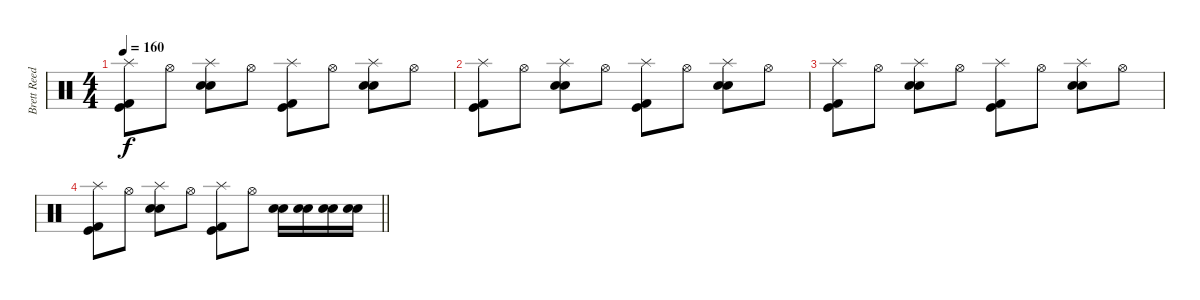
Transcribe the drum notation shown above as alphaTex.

\track ("Brett Reed" "Brett Reed") {instrument percussion}
\staff {score}
\articulation defaults
\ts (4 4)
\tempo 160
\clef neutral
\ks c
("Splash (hit)" "Kick (hit) 2" "Kick (hit)").8{dy f} "Hi-Hat (open)".8 ("Splash (hit)" "Electric Snare (hit)" "Snare (hit) 2").8 "Hi-Hat (open)".8 ("Splash (hit)" "Kick (hit) 2" "Kick (hit)").8 "Hi-Hat (open)".8 ("Splash (hit)" "Electric Snare (hit)" "Snare (hit) 2").8 "Hi-Hat (open)".8 |
("Splash (hit)" "Kick (hit) 2" "Kick (hit)").8 "Hi-Hat (open)".8 ("Splash (hit)" "Electric Snare (hit)" "Snare (hit) 2").8 "Hi-Hat (open)".8 ("Splash (hit)" "Kick (hit) 2" "Kick (hit)").8 "Hi-Hat (open)".8 ("Splash (hit)" "Electric Snare (hit)" "Snare (hit) 2").8 "Hi-Hat (open)".8 |
("Splash (hit)" "Kick (hit) 2" "Kick (hit)").8 "Hi-Hat (open)".8 ("Splash (hit)" "Electric Snare (hit)" "Snare (hit) 2").8 "Hi-Hat (open)".8 ("Splash (hit)" "Kick (hit) 2" "Kick (hit)").8 "Hi-Hat (open)".8 ("Splash (hit)" "Electric Snare (hit)" "Snare (hit) 2").8 "Hi-Hat (open)".8 |
\barLineRight lightlight
("Splash (hit)" "Kick (hit) 2" "Kick (hit)").8 "Hi-Hat (open)".8 ("Splash (hit)" "Electric Snare (hit)" "Snare (hit) 2").8 "Hi-Hat (open)".8 ("Splash (hit)" "Kick (hit) 2" "Kick (hit)").8 "Hi-Hat (open)".8 ("Electric Snare (hit)" "Snare (hit) 2").16 ("Electric Snare (hit)" "Snare (hit) 2").16 ("Electric Snare (hit)" "Snare (hit) 2").16 ("Electric Snare (hit)" "Snare (hit) 2").16
